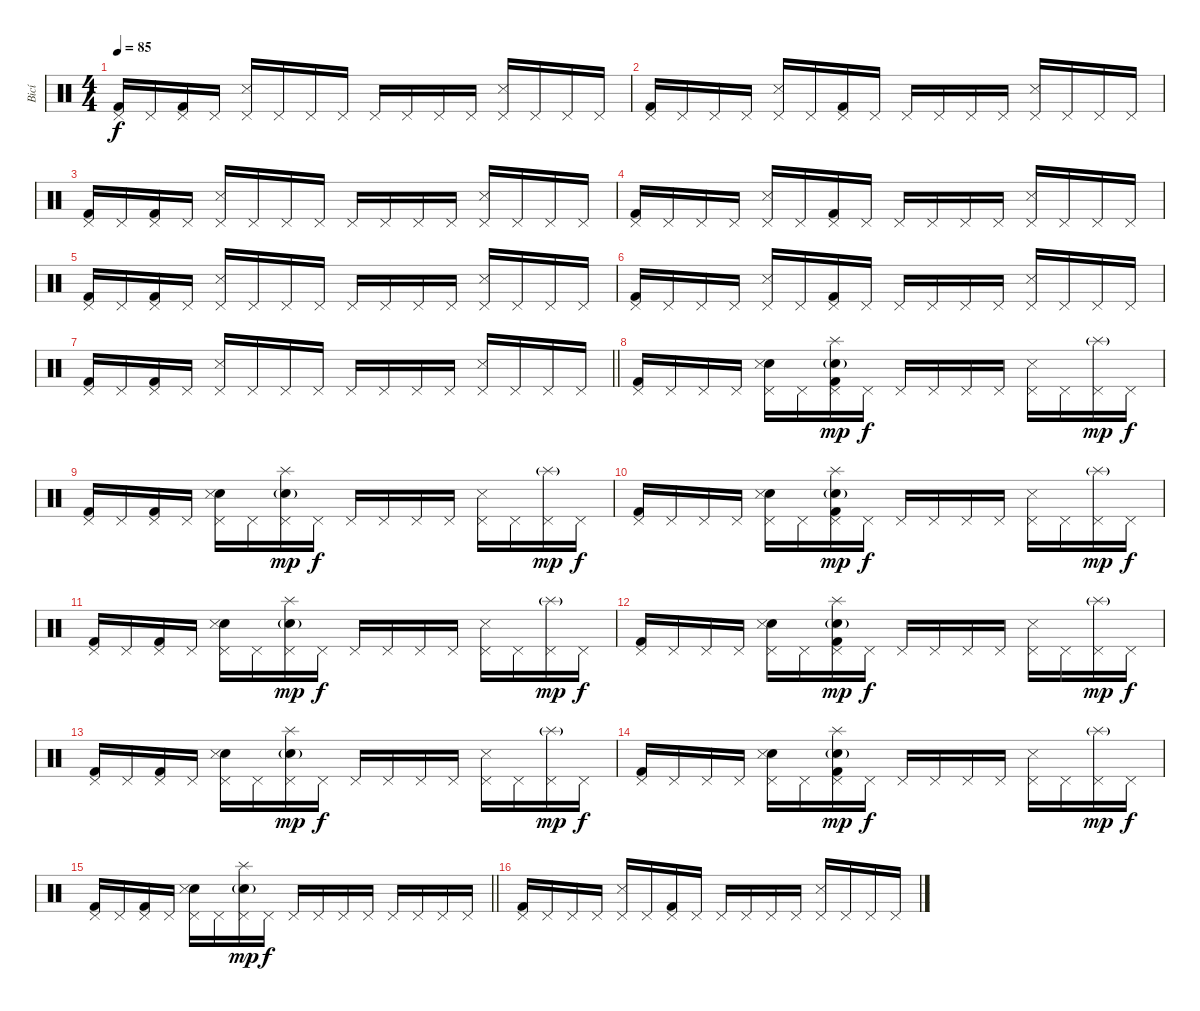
\track ("Bicí" "Bicí") {instrument percussion}
\staff {score}
\articulation defaults
\ts (4 4)
\tempo 85
\clef neutral
\ks c
("Pedal Hi-Hat (hit)" "Kick (hit) 2").16{dy f} "Pedal Hi-Hat (hit)".16 ("Pedal Hi-Hat (hit)" "Kick (hit) 2").16 "Pedal Hi-Hat (hit)".16 ("Pedal Hi-Hat (hit)" "Snare (side stick) 3").16 "Pedal Hi-Hat (hit)".16 "Pedal Hi-Hat (hit)".16 "Pedal Hi-Hat (hit)".16 "Pedal Hi-Hat (hit)".16 "Pedal Hi-Hat (hit)".16 "Pedal Hi-Hat (hit)".16 "Pedal Hi-Hat (hit)".16 ("Pedal Hi-Hat (hit)" "Snare (side stick) 3").16 "Pedal Hi-Hat (hit)".16 "Pedal Hi-Hat (hit)".16 "Pedal Hi-Hat (hit)".16 |
("Pedal Hi-Hat (hit)" "Kick (hit) 2").16 "Pedal Hi-Hat (hit)".16 "Pedal Hi-Hat (hit)".16 "Pedal Hi-Hat (hit)".16 ("Pedal Hi-Hat (hit)" "Snare (side stick) 3").16 "Pedal Hi-Hat (hit)".16 ("Pedal Hi-Hat (hit)" "Kick (hit) 2").16 "Pedal Hi-Hat (hit)".16 "Pedal Hi-Hat (hit)".16 "Pedal Hi-Hat (hit)".16 "Pedal Hi-Hat (hit)".16 "Pedal Hi-Hat (hit)".16 ("Pedal Hi-Hat (hit)" "Snare (side stick) 3").16 "Pedal Hi-Hat (hit)".16 "Pedal Hi-Hat (hit)".16 "Pedal Hi-Hat (hit)".16 |
("Pedal Hi-Hat (hit)" "Kick (hit) 2").16 "Pedal Hi-Hat (hit)".16 ("Pedal Hi-Hat (hit)" "Kick (hit) 2").16 "Pedal Hi-Hat (hit)".16 ("Pedal Hi-Hat (hit)" "Snare (side stick) 3").16 "Pedal Hi-Hat (hit)".16 "Pedal Hi-Hat (hit)".16 "Pedal Hi-Hat (hit)".16 "Pedal Hi-Hat (hit)".16 "Pedal Hi-Hat (hit)".16 "Pedal Hi-Hat (hit)".16 "Pedal Hi-Hat (hit)".16 ("Pedal Hi-Hat (hit)" "Snare (side stick) 3").16 "Pedal Hi-Hat (hit)".16 "Pedal Hi-Hat (hit)".16 "Pedal Hi-Hat (hit)".16 |
("Pedal Hi-Hat (hit)" "Kick (hit) 2").16 "Pedal Hi-Hat (hit)".16 "Pedal Hi-Hat (hit)".16 "Pedal Hi-Hat (hit)".16 ("Pedal Hi-Hat (hit)" "Snare (side stick) 3").16 "Pedal Hi-Hat (hit)".16 ("Pedal Hi-Hat (hit)" "Kick (hit) 2").16 "Pedal Hi-Hat (hit)".16 "Pedal Hi-Hat (hit)".16 "Pedal Hi-Hat (hit)".16 "Pedal Hi-Hat (hit)".16 "Pedal Hi-Hat (hit)".16 ("Pedal Hi-Hat (hit)" "Snare (side stick) 3").16 "Pedal Hi-Hat (hit)".16 "Pedal Hi-Hat (hit)".16 "Pedal Hi-Hat (hit)".16 |
("Pedal Hi-Hat (hit)" "Kick (hit) 2").16 "Pedal Hi-Hat (hit)".16 ("Pedal Hi-Hat (hit)" "Kick (hit) 2").16 "Pedal Hi-Hat (hit)".16 ("Pedal Hi-Hat (hit)" "Snare (side stick) 3").16 "Pedal Hi-Hat (hit)".16 "Pedal Hi-Hat (hit)".16 "Pedal Hi-Hat (hit)".16 "Pedal Hi-Hat (hit)".16 "Pedal Hi-Hat (hit)".16 "Pedal Hi-Hat (hit)".16 "Pedal Hi-Hat (hit)".16 ("Pedal Hi-Hat (hit)" "Snare (side stick) 3").16 "Pedal Hi-Hat (hit)".16 "Pedal Hi-Hat (hit)".16 "Pedal Hi-Hat (hit)".16 |
("Pedal Hi-Hat (hit)" "Kick (hit) 2").16 "Pedal Hi-Hat (hit)".16 "Pedal Hi-Hat (hit)".16 "Pedal Hi-Hat (hit)".16 ("Pedal Hi-Hat (hit)" "Snare (side stick) 3").16 "Pedal Hi-Hat (hit)".16 ("Pedal Hi-Hat (hit)" "Kick (hit) 2").16 "Pedal Hi-Hat (hit)".16 "Pedal Hi-Hat (hit)".16 "Pedal Hi-Hat (hit)".16 "Pedal Hi-Hat (hit)".16 "Pedal Hi-Hat (hit)".16 ("Pedal Hi-Hat (hit)" "Snare (side stick) 3").16 "Pedal Hi-Hat (hit)".16 "Pedal Hi-Hat (hit)".16 "Pedal Hi-Hat (hit)".16 |
\barLineRight lightlight
("Pedal Hi-Hat (hit)" "Kick (hit) 2").16 "Pedal Hi-Hat (hit)".16 ("Pedal Hi-Hat (hit)" "Kick (hit) 2").16 "Pedal Hi-Hat (hit)".16 ("Pedal Hi-Hat (hit)" "Snare (side stick) 3").16 "Pedal Hi-Hat (hit)".16 "Pedal Hi-Hat (hit)".16 "Pedal Hi-Hat (hit)".16 "Pedal Hi-Hat (hit)".16 "Pedal Hi-Hat (hit)".16 "Pedal Hi-Hat (hit)".16 "Pedal Hi-Hat (hit)".16 ("Pedal Hi-Hat (hit)" "Snare (side stick) 3").16 "Pedal Hi-Hat (hit)".16 "Pedal Hi-Hat (hit)".16 "Pedal Hi-Hat (hit)".16 |
\section ("" "")
("Pedal Hi-Hat (hit)" "Kick (hit) 2").16 "Pedal Hi-Hat (hit)".16 "Pedal Hi-Hat (hit)".16 "Pedal Hi-Hat (hit)".16 ("Pedal Hi-Hat (hit)" "Hand Clap (hit)" "Snare (side stick) 3").16 "Pedal Hi-Hat (hit)".16 ("Pedal Hi-Hat (hit)" "Splash (hit)" "Hand Clap (hit)"{g} "Kick (hit) 2").16{dy mp} "Pedal Hi-Hat (hit)".16{dy f} "Pedal Hi-Hat (hit)".16 "Pedal Hi-Hat (hit)".16 "Pedal Hi-Hat (hit)".16 "Pedal Hi-Hat (hit)".16 ("Pedal Hi-Hat (hit)" "Snare (side stick) 3").16 "Pedal Hi-Hat (hit)".16 ("Pedal Hi-Hat (hit)" "Splash (hit)"{g}).16{dy mp} "Pedal Hi-Hat (hit)".16{dy f} |
("Pedal Hi-Hat (hit)" "Kick (hit) 2").16 "Pedal Hi-Hat (hit)".16 ("Pedal Hi-Hat (hit)" "Kick (hit) 2").16 "Pedal Hi-Hat (hit)".16 ("Pedal Hi-Hat (hit)" "Hand Clap (hit)" "Snare (side stick) 3").16 "Pedal Hi-Hat (hit)".16 ("Pedal Hi-Hat (hit)" "Splash (hit)" "Hand Clap (hit)"{g}).16{dy mp} "Pedal Hi-Hat (hit)".16{dy f} "Pedal Hi-Hat (hit)".16 "Pedal Hi-Hat (hit)".16 "Pedal Hi-Hat (hit)".16 "Pedal Hi-Hat (hit)".16 ("Pedal Hi-Hat (hit)" "Snare (side stick) 3").16 "Pedal Hi-Hat (hit)".16 ("Pedal Hi-Hat (hit)" "Splash (hit)"{g}).16{dy mp} "Pedal Hi-Hat (hit)".16{dy f} |
("Pedal Hi-Hat (hit)" "Kick (hit) 2").16 "Pedal Hi-Hat (hit)".16 "Pedal Hi-Hat (hit)".16 "Pedal Hi-Hat (hit)".16 ("Pedal Hi-Hat (hit)" "Hand Clap (hit)" "Snare (side stick) 3").16 "Pedal Hi-Hat (hit)".16 ("Pedal Hi-Hat (hit)" "Splash (hit)" "Hand Clap (hit)"{g} "Kick (hit) 2").16{dy mp} "Pedal Hi-Hat (hit)".16{dy f} "Pedal Hi-Hat (hit)".16 "Pedal Hi-Hat (hit)".16 "Pedal Hi-Hat (hit)".16 "Pedal Hi-Hat (hit)".16 ("Pedal Hi-Hat (hit)" "Snare (side stick) 3").16 "Pedal Hi-Hat (hit)".16 ("Pedal Hi-Hat (hit)" "Splash (hit)"{g}).16{dy mp} "Pedal Hi-Hat (hit)".16{dy f} |
("Pedal Hi-Hat (hit)" "Kick (hit) 2").16 "Pedal Hi-Hat (hit)".16 ("Pedal Hi-Hat (hit)" "Kick (hit) 2").16 "Pedal Hi-Hat (hit)".16 ("Pedal Hi-Hat (hit)" "Hand Clap (hit)" "Snare (side stick) 3").16 "Pedal Hi-Hat (hit)".16 ("Pedal Hi-Hat (hit)" "Splash (hit)" "Hand Clap (hit)"{g}).16{dy mp} "Pedal Hi-Hat (hit)".16{dy f} "Pedal Hi-Hat (hit)".16 "Pedal Hi-Hat (hit)".16 "Pedal Hi-Hat (hit)".16 "Pedal Hi-Hat (hit)".16 ("Pedal Hi-Hat (hit)" "Snare (side stick) 3").16 "Pedal Hi-Hat (hit)".16 ("Pedal Hi-Hat (hit)" "Splash (hit)"{g}).16{dy mp} "Pedal Hi-Hat (hit)".16{dy f} |
("Pedal Hi-Hat (hit)" "Kick (hit) 2").16 "Pedal Hi-Hat (hit)".16 "Pedal Hi-Hat (hit)".16 "Pedal Hi-Hat (hit)".16 ("Pedal Hi-Hat (hit)" "Hand Clap (hit)" "Snare (side stick) 3").16 "Pedal Hi-Hat (hit)".16 ("Pedal Hi-Hat (hit)" "Splash (hit)" "Hand Clap (hit)"{g} "Kick (hit) 2").16{dy mp} "Pedal Hi-Hat (hit)".16{dy f} "Pedal Hi-Hat (hit)".16 "Pedal Hi-Hat (hit)".16 "Pedal Hi-Hat (hit)".16 "Pedal Hi-Hat (hit)".16 ("Pedal Hi-Hat (hit)" "Snare (side stick) 3").16 "Pedal Hi-Hat (hit)".16 ("Pedal Hi-Hat (hit)" "Splash (hit)"{g}).16{dy mp} "Pedal Hi-Hat (hit)".16{dy f} |
("Pedal Hi-Hat (hit)" "Kick (hit) 2").16 "Pedal Hi-Hat (hit)".16 ("Pedal Hi-Hat (hit)" "Kick (hit) 2").16 "Pedal Hi-Hat (hit)".16 ("Pedal Hi-Hat (hit)" "Hand Clap (hit)" "Snare (side stick) 3").16 "Pedal Hi-Hat (hit)".16 ("Pedal Hi-Hat (hit)" "Splash (hit)" "Hand Clap (hit)"{g}).16{dy mp} "Pedal Hi-Hat (hit)".16{dy f} "Pedal Hi-Hat (hit)".16 "Pedal Hi-Hat (hit)".16 "Pedal Hi-Hat (hit)".16 "Pedal Hi-Hat (hit)".16 ("Pedal Hi-Hat (hit)" "Snare (side stick) 3").16 "Pedal Hi-Hat (hit)".16 ("Pedal Hi-Hat (hit)" "Splash (hit)"{g}).16{dy mp} "Pedal Hi-Hat (hit)".16{dy f} |
("Pedal Hi-Hat (hit)" "Kick (hit) 2").16 "Pedal Hi-Hat (hit)".16 "Pedal Hi-Hat (hit)".16 "Pedal Hi-Hat (hit)".16 ("Pedal Hi-Hat (hit)" "Hand Clap (hit)" "Snare (side stick) 3").16 "Pedal Hi-Hat (hit)".16 ("Pedal Hi-Hat (hit)" "Splash (hit)" "Hand Clap (hit)"{g} "Kick (hit) 2").16{dy mp} "Pedal Hi-Hat (hit)".16{dy f} "Pedal Hi-Hat (hit)".16 "Pedal Hi-Hat (hit)".16 "Pedal Hi-Hat (hit)".16 "Pedal Hi-Hat (hit)".16 ("Pedal Hi-Hat (hit)" "Snare (side stick) 3").16 "Pedal Hi-Hat (hit)".16 ("Pedal Hi-Hat (hit)" "Splash (hit)"{g}).16{dy mp} "Pedal Hi-Hat (hit)".16{dy f} |
\barLineRight lightlight
("Pedal Hi-Hat (hit)" "Kick (hit) 2").16 "Pedal Hi-Hat (hit)".16 ("Pedal Hi-Hat (hit)" "Kick (hit) 2").16 "Pedal Hi-Hat (hit)".16 ("Pedal Hi-Hat (hit)" "Hand Clap (hit)" "Snare (side stick) 3").16 "Pedal Hi-Hat (hit)".16 ("Pedal Hi-Hat (hit)" "Splash (hit)" "Hand Clap (hit)"{g}).16{dy mp} "Pedal Hi-Hat (hit)".16{dy f} "Pedal Hi-Hat (hit)".16 "Pedal Hi-Hat (hit)".16 "Pedal Hi-Hat (hit)".16 "Pedal Hi-Hat (hit)".16 "Pedal Hi-Hat (hit)".16 "Pedal Hi-Hat (hit)".16 "Pedal Hi-Hat (hit)".16 "Pedal Hi-Hat (hit)".16 |
\section ("" "")
("Pedal Hi-Hat (hit)" "Kick (hit) 2").16 "Pedal Hi-Hat (hit)".16 "Pedal Hi-Hat (hit)".16 "Pedal Hi-Hat (hit)".16 ("Pedal Hi-Hat (hit)" "Snare (side stick) 3").16 "Pedal Hi-Hat (hit)".16 ("Pedal Hi-Hat (hit)" "Kick (hit) 2").16 "Pedal Hi-Hat (hit)".16 "Pedal Hi-Hat (hit)".16 "Pedal Hi-Hat (hit)".16 "Pedal Hi-Hat (hit)".16 "Pedal Hi-Hat (hit)".16 ("Pedal Hi-Hat (hit)" "Snare (side stick) 3").16 "Pedal Hi-Hat (hit)".16 "Pedal Hi-Hat (hit)".16 "Pedal Hi-Hat (hit)".16
